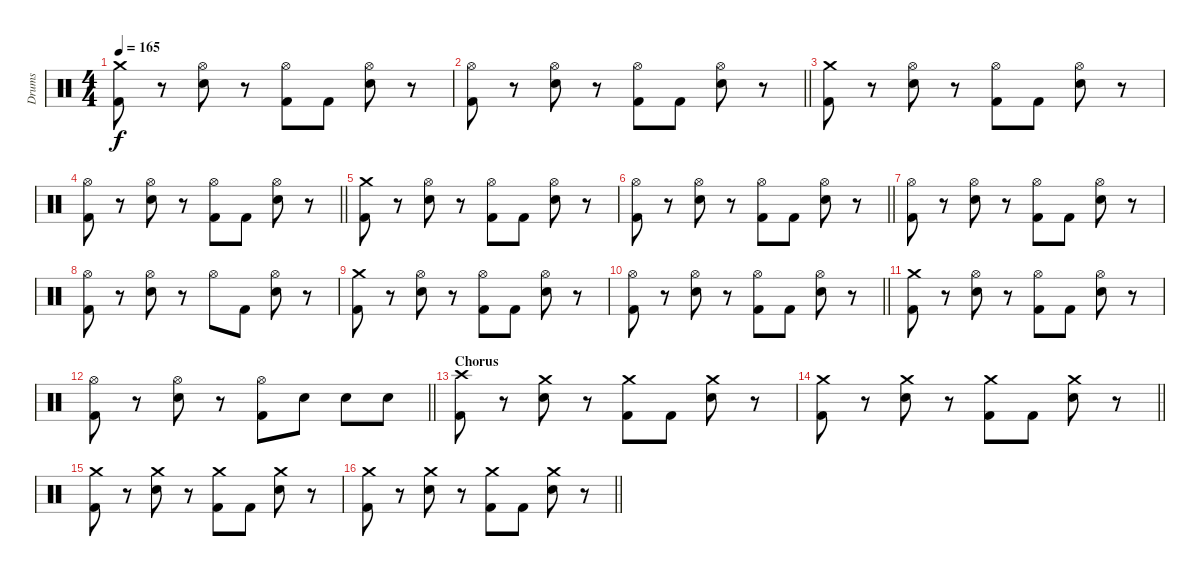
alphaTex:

\track ("Drums" "Drums") {instrument percussion}
\staff {score}
\articulation defaults
\ts (4 4)
\tempo 165
\clef neutral
\ks c
("Crash medium (hit)" "Kick (hit) 2").8{dy f} r.8 ("Hi-Hat (open)" "Electric Snare (hit)").8 r.8 ("Hi-Hat (open)" "Kick (hit) 2").8 "Kick (hit) 2".8 ("Hi-Hat (open)" "Electric Snare (hit)").8 r.8 |
\barLineRight lightlight
("Hi-Hat (open)" "Kick (hit) 2").8 r.8 ("Hi-Hat (open)" "Electric Snare (hit)").8 r.8 ("Hi-Hat (open)" "Kick (hit) 2").8 "Kick (hit) 2".8 ("Hi-Hat (open)" "Electric Snare (hit)").8 r.8 |
("Crash medium (hit)" "Kick (hit) 2").8 r.8 ("Hi-Hat (open)" "Electric Snare (hit)").8 r.8 ("Hi-Hat (open)" "Kick (hit) 2").8 "Kick (hit) 2".8 ("Hi-Hat (open)" "Electric Snare (hit)").8 r.8 |
\barLineRight lightlight
("Hi-Hat (open)" "Kick (hit) 2").8 r.8 ("Hi-Hat (open)" "Electric Snare (hit)").8 r.8 ("Hi-Hat (open)" "Kick (hit) 2").8 "Kick (hit) 2".8 ("Hi-Hat (open)" "Electric Snare (hit)").8 r.8 |
("Crash medium (hit)" "Kick (hit) 2").8 r.8 ("Hi-Hat (open)" "Electric Snare (hit)").8 r.8 ("Hi-Hat (open)" "Kick (hit) 2").8 "Kick (hit) 2".8 ("Hi-Hat (open)" "Electric Snare (hit)").8 r.8 |
\barLineRight lightlight
("Hi-Hat (open)" "Kick (hit) 2").8 r.8 ("Hi-Hat (open)" "Electric Snare (hit)").8 r.8 ("Hi-Hat (open)" "Kick (hit) 2").8 "Kick (hit) 2".8 ("Hi-Hat (open)" "Electric Snare (hit)").8 r.8 |
("Hi-Hat (open)" "Kick (hit) 2").8 r.8 ("Hi-Hat (open)" "Electric Snare (hit)").8 r.8 ("Hi-Hat (open)" "Kick (hit) 2").8 "Kick (hit) 2".8 ("Hi-Hat (open)" "Electric Snare (hit)").8 r.8 |
("Hi-Hat (open)" "Kick (hit) 2").8 r.8 ("Hi-Hat (open)" "Electric Snare (hit)").8 r.8 "Hi-Hat (open)".8 "Kick (hit) 2".8 ("Hi-Hat (open)" "Electric Snare (hit)").8 r.8 |
("Crash medium (hit)" "Kick (hit) 2").8 r.8 ("Hi-Hat (open)" "Electric Snare (hit)").8 r.8 ("Hi-Hat (open)" "Kick (hit) 2").8 "Kick (hit) 2".8 ("Hi-Hat (open)" "Electric Snare (hit)").8 r.8 |
\barLineRight lightlight
("Hi-Hat (open)" "Kick (hit) 2").8 r.8 ("Hi-Hat (open)" "Electric Snare (hit)").8 r.8 ("Hi-Hat (open)" "Kick (hit) 2").8 "Kick (hit) 2".8 ("Hi-Hat (open)" "Electric Snare (hit)").8 r.8 |
("Crash medium (hit)" "Kick (hit) 2").8 r.8 ("Hi-Hat (open)" "Electric Snare (hit)").8 r.8 ("Hi-Hat (open)" "Kick (hit) 2").8 "Kick (hit) 2".8 ("Hi-Hat (open)" "Electric Snare (hit)").8 r.8 |
\barLineRight lightlight
("Hi-Hat (open)" "Kick (hit) 2").8 r.8 ("Hi-Hat (open)" "Electric Snare (hit)").8 r.8 ("Hi-Hat (open)" "Kick (hit) 2").8 "Electric Snare (hit)".8 "Electric Snare (hit)".8 "Electric Snare (hit)".8 |
\section ("" "Chorus")
("Crash high (hit)" "Kick (hit) 2").8 r.8 ("Crash medium (hit)" "Electric Snare (hit)").8 r.8 ("Crash medium (hit)" "Kick (hit) 2").8 "Kick (hit) 2".8 ("Crash medium (hit)" "Electric Snare (hit)").8 r.8 |
\barLineRight lightlight
("Crash medium (hit)" "Kick (hit) 2").8 r.8 ("Crash medium (hit)" "Electric Snare (hit)").8 r.8 ("Crash medium (hit)" "Kick (hit) 2").8 "Kick (hit) 2".8 ("Crash medium (hit)" "Electric Snare (hit)").8 r.8 |
("Crash medium (hit)" "Kick (hit) 2").8 r.8 ("Crash medium (hit)" "Electric Snare (hit)").8 r.8 ("Crash medium (hit)" "Kick (hit) 2").8 "Kick (hit) 2".8 ("Crash medium (hit)" "Electric Snare (hit)").8 r.8 |
\barLineRight lightlight
("Crash medium (hit)" "Kick (hit) 2").8 r.8 ("Crash medium (hit)" "Electric Snare (hit)").8 r.8 ("Crash medium (hit)" "Kick (hit) 2").8 "Kick (hit) 2".8 ("Crash medium (hit)" "Electric Snare (hit)").8 r.8
